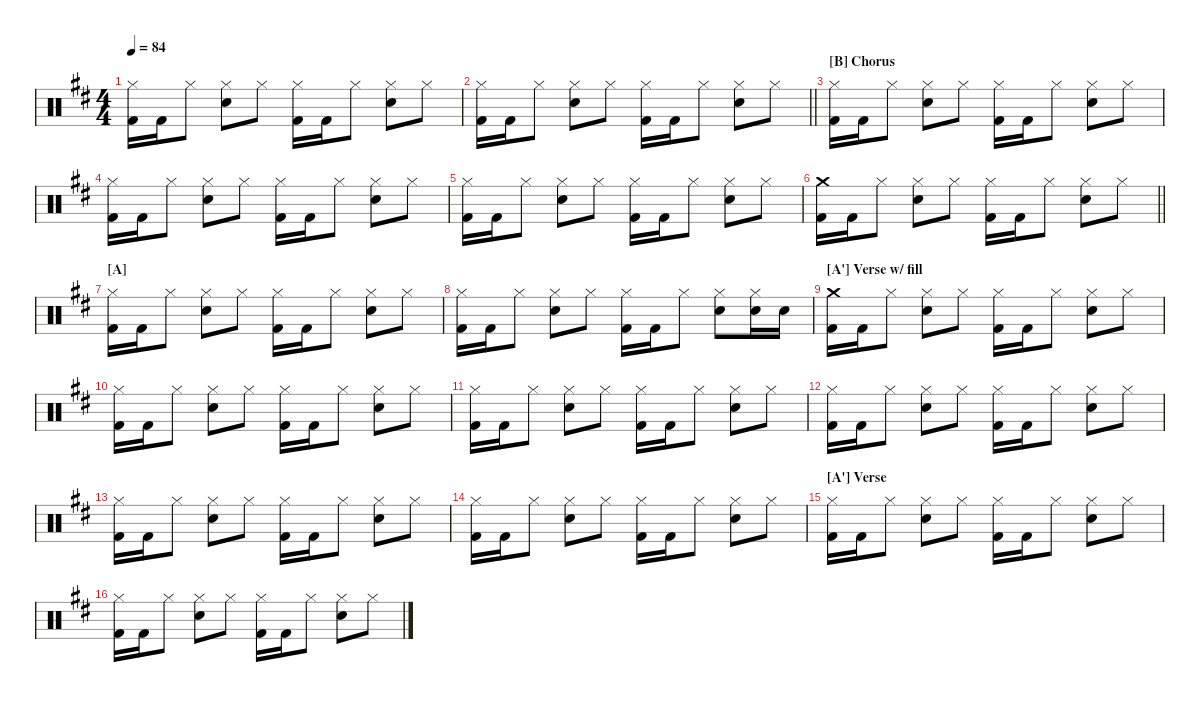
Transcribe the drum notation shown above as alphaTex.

\hideDynamics
\bracketExtendMode nobrackets
\singleTrackTrackNamePolicy hidden
\multiTrackTrackNamePolicy hidden
\otherSystemsTrackNameOrientation horizontal
\track ("Drumkit" "Drums") {instrument percussion}
\staff {score}
\articulation defaults
\ts (4 4)
\tempo 84
\clef neutral
\ks d
("Kick (hit) 2"{acc forcenatural} "Hi-Hat (closed)"{acc forcenatural}).16{dy f beam Down} "Kick (hit) 2"{acc forcenatural}.16{beam Down} "Hi-Hat (closed)"{acc forcenatural}.8{beam Down} ("Snare (hit) 2"{acc forcenatural} "Hi-Hat (closed)"{acc forcenatural}).8{beam Down} "Hi-Hat (closed)"{acc forcenatural}.8{beam Down} ("Kick (hit) 2"{acc forcenatural} "Hi-Hat (closed)"{acc forcenatural}).16{beam Down} "Kick (hit) 2"{acc forcenatural}.16{beam Down} "Hi-Hat (closed)"{acc forcenatural}.8{beam Down} ("Snare (hit) 2"{acc forcenatural} "Hi-Hat (closed)"{acc forcenatural}).8{beam Down} "Hi-Hat (closed)"{acc forcenatural}.8{beam Down} |
\barLineRight lightlight
("Kick (hit) 2"{acc forcenatural} "Hi-Hat (closed)"{acc forcenatural}).16{beam Down} "Kick (hit) 2"{acc forcenatural}.16{beam Down} "Hi-Hat (closed)"{acc forcenatural}.8{beam Down} ("Snare (hit) 2"{acc forcenatural} "Hi-Hat (closed)"{acc forcenatural}).8{beam Down} "Hi-Hat (closed)"{acc forcenatural}.8{beam Down} ("Kick (hit) 2"{acc forcenatural} "Hi-Hat (closed)"{acc forcenatural}).16{beam Down} "Kick (hit) 2"{acc forcenatural}.16{beam Down} "Hi-Hat (closed)"{acc forcenatural}.8{beam Down} ("Snare (hit) 2"{acc forcenatural} "Hi-Hat (closed)"{acc forcenatural}).8{beam Down} "Hi-Hat (closed)"{acc forcenatural}.8{beam Down} |
\section ("B" "Chorus")
("Kick (hit) 2"{acc forcenatural} "Hi-Hat (closed)"{acc forcenatural}).16{beam Down} "Kick (hit) 2"{acc forcenatural}.16{beam Down} "Hi-Hat (closed)"{acc forcenatural}.8{beam Down} ("Snare (hit) 2"{acc forcenatural} "Hi-Hat (closed)"{acc forcenatural}).8{beam Down} "Hi-Hat (closed)"{acc forcenatural}.8{beam Down} ("Kick (hit) 2"{acc forcenatural} "Hi-Hat (closed)"{acc forcenatural}).16{beam Down} "Kick (hit) 2"{acc forcenatural}.16{beam Down} "Hi-Hat (closed)"{acc forcenatural}.8{beam Down} ("Snare (hit) 2"{acc forcenatural} "Hi-Hat (closed)"{acc forcenatural}).8{beam Down} "Hi-Hat (closed)"{acc forcenatural}.8{beam Down} |
("Kick (hit) 2"{acc forcenatural} "Hi-Hat (closed)"{acc forcenatural}).16{beam Down} "Kick (hit) 2"{acc forcenatural}.16{beam Down} "Hi-Hat (closed)"{acc forcenatural}.8{beam Down} ("Snare (hit) 2"{acc forcenatural} "Hi-Hat (closed)"{acc forcenatural}).8{beam Down} "Hi-Hat (closed)"{acc forcenatural}.8{beam Down} ("Kick (hit) 2"{acc forcenatural} "Hi-Hat (closed)"{acc forcenatural}).16{beam Down} "Kick (hit) 2"{acc forcenatural}.16{beam Down} "Hi-Hat (closed)"{acc forcenatural}.8{beam Down} ("Snare (hit) 2"{acc forcenatural} "Hi-Hat (closed)"{acc forcenatural}).8{beam Down} "Hi-Hat (closed)"{acc forcenatural}.8{beam Down} |
("Kick (hit) 2"{acc forcenatural} "Hi-Hat (closed)"{acc forcenatural}).16{beam Down} "Kick (hit) 2"{acc forcenatural}.16{beam Down} "Hi-Hat (closed)"{acc forcenatural}.8{beam Down} ("Snare (hit) 2"{acc forcenatural} "Hi-Hat (closed)"{acc forcenatural}).8{beam Down} "Hi-Hat (closed)"{acc forcenatural}.8{beam Down} ("Kick (hit) 2"{acc forcenatural} "Hi-Hat (closed)"{acc forcenatural}).16{beam Down} "Kick (hit) 2"{acc forcenatural}.16{beam Down} "Hi-Hat (closed)"{acc forcenatural}.8{beam Down} ("Snare (hit) 2"{acc forcenatural} "Hi-Hat (closed)"{acc forcenatural}).8{beam Down} "Hi-Hat (closed)"{acc forcenatural}.8{beam Down} |
\barLineRight lightlight
("Kick (hit) 2"{acc forcenatural} "Crash medium (hit)"{acc forcenatural}).16{beam Down} "Kick (hit) 2"{acc forcenatural}.16{beam Down} "Hi-Hat (closed)"{acc forcenatural}.8{beam Down} ("Snare (hit) 2"{acc forcenatural} "Hi-Hat (closed)"{acc forcenatural}).8{beam Down} "Hi-Hat (closed)"{acc forcenatural}.8{beam Down} ("Kick (hit) 2"{acc forcenatural} "Hi-Hat (closed)"{acc forcenatural}).16{beam Down} "Kick (hit) 2"{acc forcenatural}.16{beam Down} "Hi-Hat (closed)"{acc forcenatural}.8{beam Down} ("Snare (hit) 2"{acc forcenatural} "Hi-Hat (closed)"{acc forcenatural}).8{beam Down} "Hi-Hat (closed)"{acc forcenatural}.8{beam Down} |
\section ("A" "")
("Kick (hit) 2"{acc forcenatural} "Hi-Hat (closed)"{acc forcenatural}).16{beam Down} "Kick (hit) 2"{acc forcenatural}.16{beam Down} "Hi-Hat (closed)"{acc forcenatural}.8{beam Down} ("Snare (hit) 2"{acc forcenatural} "Hi-Hat (closed)"{acc forcenatural}).8{beam Down} "Hi-Hat (closed)"{acc forcenatural}.8{beam Down} ("Kick (hit) 2"{acc forcenatural} "Hi-Hat (closed)"{acc forcenatural}).16{beam Down} "Kick (hit) 2"{acc forcenatural}.16{beam Down} "Hi-Hat (closed)"{acc forcenatural}.8{beam Down} ("Snare (hit) 2"{acc forcenatural} "Hi-Hat (closed)"{acc forcenatural}).8{beam Down} "Hi-Hat (closed)"{acc forcenatural}.8{beam Down} |
("Kick (hit) 2"{acc forcenatural} "Hi-Hat (closed)"{acc forcenatural}).16{beam Down} "Kick (hit) 2"{acc forcenatural}.16{beam Down} "Hi-Hat (closed)"{acc forcenatural}.8{beam Down} ("Snare (hit) 2"{acc forcenatural} "Hi-Hat (closed)"{acc forcenatural}).8{beam Down} "Hi-Hat (closed)"{acc forcenatural}.8{beam Down} ("Kick (hit) 2"{acc forcenatural} "Hi-Hat (closed)"{acc forcenatural}).16{beam Down} "Kick (hit) 2"{acc forcenatural}.16{beam Down} "Hi-Hat (closed)"{acc forcenatural}.8{beam Down} ("Snare (hit) 2"{acc forcenatural} "Hi-Hat (closed)"{acc forcenatural}).8{beam Down} ("Snare (hit) 2"{acc forcenatural} "Hi-Hat (closed)"{acc forcenatural}).16{beam Down} "Snare (hit) 2"{acc forcenatural}.16{beam Down} |
\section ("A'" "Verse w/ fill")
("Kick (hit) 2"{acc forcenatural} "Crash medium (hit)"{acc forcenatural}).16{beam Down} "Kick (hit) 2"{acc forcenatural}.16{beam Down} "Hi-Hat (closed)"{acc forcenatural}.8{beam Down} ("Snare (hit) 2"{acc forcenatural} "Hi-Hat (closed)"{acc forcenatural}).8{beam Down} "Hi-Hat (closed)"{acc forcenatural}.8{beam Down} ("Kick (hit) 2"{acc forcenatural} "Hi-Hat (closed)"{acc forcenatural}).16{beam Down} "Kick (hit) 2"{acc forcenatural}.16{beam Down} "Hi-Hat (closed)"{acc forcenatural}.8{beam Down} ("Snare (hit) 2"{acc forcenatural} "Hi-Hat (closed)"{acc forcenatural}).8{beam Down} "Hi-Hat (closed)"{acc forcenatural}.8{beam Down} |
("Kick (hit) 2"{acc forcenatural} "Hi-Hat (closed)"{acc forcenatural}).16{beam Down} "Kick (hit) 2"{acc forcenatural}.16{beam Down} "Hi-Hat (closed)"{acc forcenatural}.8{beam Down} ("Snare (hit) 2"{acc forcenatural} "Hi-Hat (closed)"{acc forcenatural}).8{beam Down} "Hi-Hat (closed)"{acc forcenatural}.8{beam Down} ("Kick (hit) 2"{acc forcenatural} "Hi-Hat (closed)"{acc forcenatural}).16{beam Down} "Kick (hit) 2"{acc forcenatural}.16{beam Down} "Hi-Hat (closed)"{acc forcenatural}.8{beam Down} ("Snare (hit) 2"{acc forcenatural} "Hi-Hat (closed)"{acc forcenatural}).8{beam Down} "Hi-Hat (closed)"{acc forcenatural}.8{beam Down} |
("Kick (hit) 2"{acc forcenatural} "Hi-Hat (closed)"{acc forcenatural}).16{beam Down} "Kick (hit) 2"{acc forcenatural}.16{beam Down} "Hi-Hat (closed)"{acc forcenatural}.8{beam Down} ("Snare (hit) 2"{acc forcenatural} "Hi-Hat (closed)"{acc forcenatural}).8{beam Down} "Hi-Hat (closed)"{acc forcenatural}.8{beam Down} ("Kick (hit) 2"{acc forcenatural} "Hi-Hat (closed)"{acc forcenatural}).16{beam Down} "Kick (hit) 2"{acc forcenatural}.16{beam Down} "Hi-Hat (closed)"{acc forcenatural}.8{beam Down} ("Snare (hit) 2"{acc forcenatural} "Hi-Hat (closed)"{acc forcenatural}).8{beam Down} "Hi-Hat (closed)"{acc forcenatural}.8{beam Down} |
("Kick (hit) 2"{acc forcenatural} "Hi-Hat (closed)"{acc forcenatural}).16{beam Down} "Kick (hit) 2"{acc forcenatural}.16{beam Down} "Hi-Hat (closed)"{acc forcenatural}.8{beam Down} ("Snare (hit) 2"{acc forcenatural} "Hi-Hat (closed)"{acc forcenatural}).8{beam Down} "Hi-Hat (closed)"{acc forcenatural}.8{beam Down} ("Kick (hit) 2"{acc forcenatural} "Hi-Hat (closed)"{acc forcenatural}).16{beam Down} "Kick (hit) 2"{acc forcenatural}.16{beam Down} "Hi-Hat (closed)"{acc forcenatural}.8{beam Down} ("Snare (hit) 2"{acc forcenatural} "Hi-Hat (closed)"{acc forcenatural}).8{beam Down} "Hi-Hat (closed)"{acc forcenatural}.8{beam Down} |
("Kick (hit) 2"{acc forcenatural} "Hi-Hat (closed)"{acc forcenatural}).16{beam Down} "Kick (hit) 2"{acc forcenatural}.16{beam Down} "Hi-Hat (closed)"{acc forcenatural}.8{beam Down} ("Snare (hit) 2"{acc forcenatural} "Hi-Hat (closed)"{acc forcenatural}).8{beam Down} "Hi-Hat (closed)"{acc forcenatural}.8{beam Down} ("Kick (hit) 2"{acc forcenatural} "Hi-Hat (closed)"{acc forcenatural}).16{beam Down} "Kick (hit) 2"{acc forcenatural}.16{beam Down} "Hi-Hat (closed)"{acc forcenatural}.8{beam Down} ("Snare (hit) 2"{acc forcenatural} "Hi-Hat (closed)"{acc forcenatural}).8{beam Down} "Hi-Hat (closed)"{acc forcenatural}.8{beam Down} |
("Kick (hit) 2"{acc forcenatural} "Hi-Hat (closed)"{acc forcenatural}).16{beam Down} "Kick (hit) 2"{acc forcenatural}.16{beam Down} "Hi-Hat (closed)"{acc forcenatural}.8{beam Down} ("Snare (hit) 2"{acc forcenatural} "Hi-Hat (closed)"{acc forcenatural}).8{beam Down} "Hi-Hat (closed)"{acc forcenatural}.8{beam Down} ("Kick (hit) 2"{acc forcenatural} "Hi-Hat (closed)"{acc forcenatural}).16{beam Down} "Kick (hit) 2"{acc forcenatural}.16{beam Down} "Hi-Hat (closed)"{acc forcenatural}.8{beam Down} ("Snare (hit) 2"{acc forcenatural} "Hi-Hat (closed)"{acc forcenatural}).8{beam Down} "Hi-Hat (closed)"{acc forcenatural}.8{beam Down} |
\section ("A'" "Verse")
("Kick (hit) 2"{acc forcenatural} "Hi-Hat (closed)"{acc forcenatural}).16{beam Down} "Kick (hit) 2"{acc forcenatural}.16{beam Down} "Hi-Hat (closed)"{acc forcenatural}.8{beam Down} ("Snare (hit) 2"{acc forcenatural} "Hi-Hat (closed)"{acc forcenatural}).8{beam Down} "Hi-Hat (closed)"{acc forcenatural}.8{beam Down} ("Kick (hit) 2"{acc forcenatural} "Hi-Hat (closed)"{acc forcenatural}).16{beam Down} "Kick (hit) 2"{acc forcenatural}.16{beam Down} "Hi-Hat (closed)"{acc forcenatural}.8{beam Down} ("Snare (hit) 2"{acc forcenatural} "Hi-Hat (closed)"{acc forcenatural}).8{beam Down} "Hi-Hat (closed)"{acc forcenatural}.8{beam Down} |
("Kick (hit) 2"{acc forcenatural} "Hi-Hat (closed)"{acc forcenatural}).16{beam Down} "Kick (hit) 2"{acc forcenatural}.16{beam Down} "Hi-Hat (closed)"{acc forcenatural}.8{beam Down} ("Snare (hit) 2"{acc forcenatural} "Hi-Hat (closed)"{acc forcenatural}).8{beam Down} "Hi-Hat (closed)"{acc forcenatural}.8{beam Down} ("Kick (hit) 2"{acc forcenatural} "Hi-Hat (closed)"{acc forcenatural}).16{beam Down} "Kick (hit) 2"{acc forcenatural}.16{beam Down} "Hi-Hat (closed)"{acc forcenatural}.8{beam Down} ("Snare (hit) 2"{acc forcenatural} "Hi-Hat (closed)"{acc forcenatural}).8{beam Down} "Hi-Hat (closed)"{acc forcenatural}.8{beam Down}
